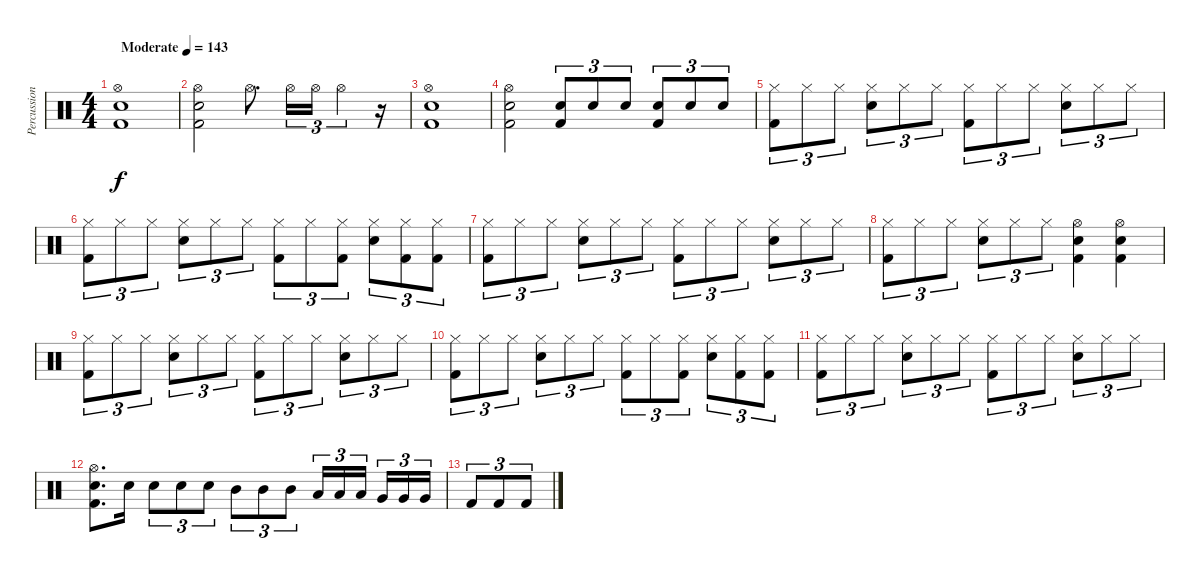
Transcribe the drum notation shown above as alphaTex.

\track ("Percussion" "Percussion") {instrument percussion}
\staff
\articulation defaults
\ts (4 4)
\tempo (143 "Moderate")
\clef neutral
\ks c
("Hi-Hat (open)" "Electric Snare (hit)" "Kick (hit) 2").1{dy f} |
("Hi-Hat (open)" "Electric Snare (hit)" "Kick (hit) 2").2 "Hi-Hat (open)".8{d} "Hi-Hat (open)".16{tu (3 2)} "Hi-Hat (open)".16{tu (3 2)} "Hi-Hat (open)".4{tu (3 2)} r.16 |
("Hi-Hat (open)" "Electric Snare (hit)" "Kick (hit) 2").1 |
("Hi-Hat (open)" "Electric Snare (hit)" "Kick (hit) 2").2 ("Electric Snare (hit)" "Kick (hit) 2").8{tu (3 2)} "Electric Snare (hit)".8{tu (3 2)} "Electric Snare (hit)".8{tu (3 2)} ("Electric Snare (hit)" "Kick (hit) 2").8{tu (3 2)} "Electric Snare (hit)".8{tu (3 2)} "Electric Snare (hit)".8{tu (3 2)} |
("Hi-Hat (closed)" "Kick (hit) 2").8{tu (3 2)} "Hi-Hat (closed)".8{tu (3 2)} "Hi-Hat (closed)".8{tu (3 2)} ("Hi-Hat (closed)" "Electric Snare (hit)").8{tu (3 2)} "Hi-Hat (closed)".8{tu (3 2)} "Hi-Hat (closed)".8{tu (3 2)} ("Hi-Hat (closed)" "Kick (hit) 2").8{tu (3 2)} "Hi-Hat (closed)".8{tu (3 2)} "Hi-Hat (closed)".8{tu (3 2)} ("Hi-Hat (closed)" "Electric Snare (hit)").8{tu (3 2)} "Hi-Hat (closed)".8{tu (3 2)} "Hi-Hat (closed)".8{tu (3 2)} |
("Hi-Hat (closed)" "Kick (hit) 2").8{tu (3 2)} "Hi-Hat (closed)".8{tu (3 2)} "Hi-Hat (closed)".8{tu (3 2)} ("Hi-Hat (closed)" "Electric Snare (hit)").8{tu (3 2)} "Hi-Hat (closed)".8{tu (3 2)} "Hi-Hat (closed)".8{tu (3 2)} ("Hi-Hat (closed)" "Kick (hit) 2").8{tu (3 2)} "Hi-Hat (closed)".8{tu (3 2)} ("Hi-Hat (closed)" "Kick (hit) 2").8{tu (3 2)} ("Hi-Hat (closed)" "Electric Snare (hit)").8{tu (3 2)} ("Hi-Hat (closed)" "Kick (hit) 2").8{tu (3 2)} ("Hi-Hat (closed)" "Kick (hit) 2").8{tu (3 2)} |
("Hi-Hat (closed)" "Kick (hit) 2").8{tu (3 2)} "Hi-Hat (closed)".8{tu (3 2)} "Hi-Hat (closed)".8{tu (3 2)} ("Hi-Hat (closed)" "Electric Snare (hit)").8{tu (3 2)} "Hi-Hat (closed)".8{tu (3 2)} "Hi-Hat (closed)".8{tu (3 2)} ("Hi-Hat (closed)" "Kick (hit) 2").8{tu (3 2)} "Hi-Hat (closed)".8{tu (3 2)} "Hi-Hat (closed)".8{tu (3 2)} ("Hi-Hat (closed)" "Electric Snare (hit)").8{tu (3 2)} "Hi-Hat (closed)".8{tu (3 2)} "Hi-Hat (closed)".8{tu (3 2)} |
("Hi-Hat (closed)" "Kick (hit) 2").8{tu (3 2)} "Hi-Hat (closed)".8{tu (3 2)} "Hi-Hat (closed)".8{tu (3 2)} ("Hi-Hat (closed)" "Electric Snare (hit)").8{tu (3 2)} "Hi-Hat (closed)".8{tu (3 2)} "Hi-Hat (closed)".8{tu (3 2)} ("Hi-Hat (open)" "Electric Snare (hit)" "Kick (hit) 2").4 ("Hi-Hat (open)" "Electric Snare (hit)" "Kick (hit) 2").4 |
("Hi-Hat (closed)" "Kick (hit) 2").8{tu (3 2)} "Hi-Hat (closed)".8{tu (3 2)} "Hi-Hat (closed)".8{tu (3 2)} ("Hi-Hat (closed)" "Electric Snare (hit)").8{tu (3 2)} "Hi-Hat (closed)".8{tu (3 2)} "Hi-Hat (closed)".8{tu (3 2)} ("Hi-Hat (closed)" "Kick (hit) 2").8{tu (3 2)} "Hi-Hat (closed)".8{tu (3 2)} "Hi-Hat (closed)".8{tu (3 2)} ("Hi-Hat (closed)" "Electric Snare (hit)").8{tu (3 2)} "Hi-Hat (closed)".8{tu (3 2)} "Hi-Hat (closed)".8{tu (3 2)} |
("Hi-Hat (closed)" "Kick (hit) 2").8{tu (3 2)} "Hi-Hat (closed)".8{tu (3 2)} "Hi-Hat (closed)".8{tu (3 2)} ("Hi-Hat (closed)" "Electric Snare (hit)").8{tu (3 2)} "Hi-Hat (closed)".8{tu (3 2)} "Hi-Hat (closed)".8{tu (3 2)} ("Hi-Hat (closed)" "Kick (hit) 2").8{tu (3 2)} "Hi-Hat (closed)".8{tu (3 2)} ("Hi-Hat (closed)" "Kick (hit) 2").8{tu (3 2)} ("Hi-Hat (closed)" "Electric Snare (hit)").8{tu (3 2)} ("Hi-Hat (closed)" "Kick (hit) 2").8{tu (3 2)} ("Hi-Hat (closed)" "Kick (hit) 2").8{tu (3 2)} |
("Hi-Hat (closed)" "Kick (hit) 2").8{tu (3 2)} "Hi-Hat (closed)".8{tu (3 2)} "Hi-Hat (closed)".8{tu (3 2)} ("Hi-Hat (closed)" "Electric Snare (hit)").8{tu (3 2)} "Hi-Hat (closed)".8{tu (3 2)} "Hi-Hat (closed)".8{tu (3 2)} ("Hi-Hat (closed)" "Kick (hit) 2").8{tu (3 2)} "Hi-Hat (closed)".8{tu (3 2)} "Hi-Hat (closed)".8{tu (3 2)} ("Hi-Hat (closed)" "Electric Snare (hit)").8{tu (3 2)} "Hi-Hat (closed)".8{tu (3 2)} "Hi-Hat (closed)".8{tu (3 2)} |
("Hi-Hat (open)" "Electric Snare (hit)" "Kick (hit) 2").8{d} "Electric Snare (hit)".16 "Electric Snare (hit)".8{tu (3 2)} "Electric Snare (hit)".8{tu (3 2)} "Electric Snare (hit)".8{tu (3 2)} "Mid Tom (hit)".8{tu (3 2)} "Mid Tom (hit)".8{tu (3 2)} "Mid Tom (hit)".8{tu (3 2)} "Low Tom (hit)".16{tu (3 2)} "Low Tom (hit)".16{tu (3 2)} "Low Tom (hit)".16{tu (3 2) beam splitsecondary} "Very Low Tom (hit)".16{tu (3 2)} "Very Low Tom (hit)".16{tu (3 2)} "Very Low Tom (hit)".16{tu (3 2)} |
"Kick (hit) 2".8{tu (3 2)} "Kick (hit) 2".8{tu (3 2)} "Kick (hit) 2".8{tu (3 2)}
